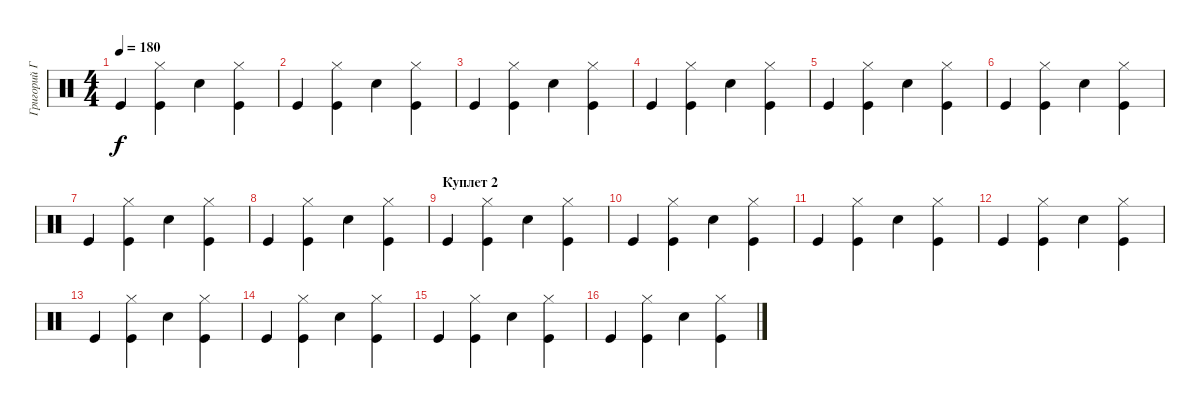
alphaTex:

\track ("Григорий Габерман" "Григорий Г") {instrument percussion}
\staff {score}
\articulation defaults
\ts (4 4)
\tempo 180
\clef neutral
\ks c "Kick (hit)".4{dy f}
("Kick (hit)" "Hi-Hat (closed)").4 "Snare (hit) 2".4 ("Kick (hit)" "Hi-Hat (closed)").4 |
"Kick (hit)".4 ("Kick (hit)" "Hi-Hat (closed)").4 "Snare (hit) 2".4 ("Kick (hit)" "Hi-Hat (closed)").4 |
"Kick (hit)".4 ("Kick (hit)" "Hi-Hat (closed)").4 "Snare (hit) 2".4 ("Kick (hit)" "Hi-Hat (closed)").4 |
"Kick (hit)".4 ("Kick (hit)" "Hi-Hat (closed)").4 "Snare (hit) 2".4 ("Kick (hit)" "Hi-Hat (closed)").4 |
"Kick (hit)".4 ("Kick (hit)" "Hi-Hat (closed)").4 "Snare (hit) 2".4 ("Kick (hit)" "Hi-Hat (closed)").4 |
"Kick (hit)".4 ("Kick (hit)" "Hi-Hat (closed)").4 "Snare (hit) 2".4 ("Kick (hit)" "Hi-Hat (closed)").4 |
"Kick (hit)".4 ("Kick (hit)" "Hi-Hat (closed)").4 "Snare (hit) 2".4 ("Kick (hit)" "Hi-Hat (closed)").4 |
"Kick (hit)".4 ("Kick (hit)" "Hi-Hat (closed)").4 "Snare (hit) 2".4 ("Kick (hit)" "Hi-Hat (closed)").4 |
\section ("" "Куплет 2")
"Kick (hit)".4 ("Kick (hit)" "Hi-Hat (closed)").4 "Snare (hit) 2".4 ("Kick (hit)" "Hi-Hat (closed)").4 |
"Kick (hit)".4 ("Kick (hit)" "Hi-Hat (closed)").4 "Snare (hit) 2".4 ("Kick (hit)" "Hi-Hat (closed)").4 |
"Kick (hit)".4 ("Kick (hit)" "Hi-Hat (closed)").4 "Snare (hit) 2".4 ("Kick (hit)" "Hi-Hat (closed)").4 |
"Kick (hit)".4 ("Kick (hit)" "Hi-Hat (closed)").4 "Snare (hit) 2".4 ("Kick (hit)" "Hi-Hat (closed)").4 |
"Kick (hit)".4 ("Kick (hit)" "Hi-Hat (closed)").4 "Snare (hit) 2".4 ("Kick (hit)" "Hi-Hat (closed)").4 |
"Kick (hit)".4 ("Kick (hit)" "Hi-Hat (closed)").4 "Snare (hit) 2".4 ("Kick (hit)" "Hi-Hat (closed)").4 |
"Kick (hit)".4 ("Kick (hit)" "Hi-Hat (closed)").4 "Snare (hit) 2".4 ("Kick (hit)" "Hi-Hat (closed)").4 |
"Kick (hit)".4 ("Kick (hit)" "Hi-Hat (closed)").4 "Snare (hit) 2".4 ("Kick (hit)" "Hi-Hat (closed)").4
